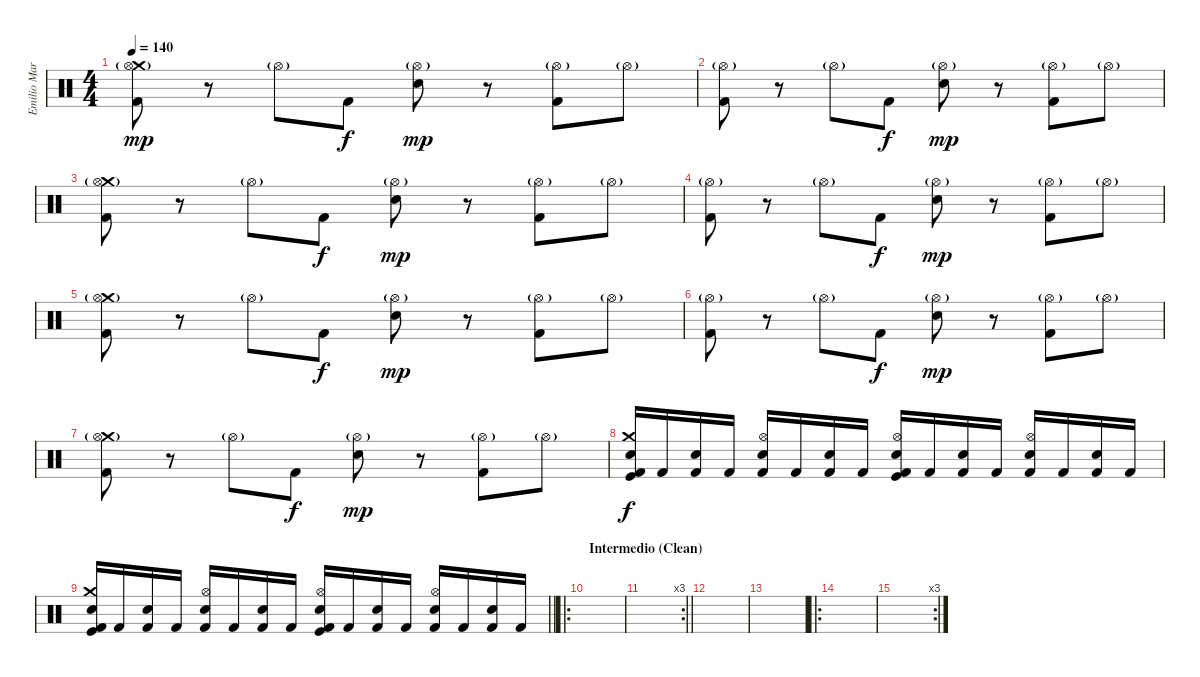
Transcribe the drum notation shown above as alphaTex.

\track ("Emilio Marquez \"El sadistico\"" "Emilio Mar") {instrument percussion}
\staff {score}
\articulation defaults
\ts (4 4)
\tempo 140
\clef neutral
\ks c
("Kick (hit) 2" "Crash medium (hit)" "Hi-Hat (open)"{g}).8{dy mp} r.8 "Hi-Hat (open)"{g}.8 "Kick (hit) 2".8{dy f} ("Electric Snare (hit)" "Hi-Hat (open)"{g}).8{dy mp} r.8 ("Kick (hit) 2" "Hi-Hat (open)"{g}).8 "Hi-Hat (open)"{g}.8 |
("Kick (hit) 2" "Hi-Hat (open)"{g}).8 r.8 "Hi-Hat (open)"{g}.8 "Kick (hit) 2".8{dy f} ("Electric Snare (hit)" "Hi-Hat (open)"{g}).8{dy mp} r.8 ("Kick (hit) 2" "Hi-Hat (open)"{g}).8 "Hi-Hat (open)"{g}.8 |
("Kick (hit) 2" "Crash medium (hit)" "Hi-Hat (open)"{g}).8 r.8 "Hi-Hat (open)"{g}.8 "Kick (hit) 2".8{dy f} ("Electric Snare (hit)" "Hi-Hat (open)"{g}).8{dy mp} r.8 ("Kick (hit) 2" "Hi-Hat (open)"{g}).8 "Hi-Hat (open)"{g}.8 |
("Kick (hit) 2" "Hi-Hat (open)"{g}).8 r.8 "Hi-Hat (open)"{g}.8 "Kick (hit) 2".8{dy f} ("Electric Snare (hit)" "Hi-Hat (open)"{g}).8{dy mp} r.8 ("Kick (hit) 2" "Hi-Hat (open)"{g}).8 "Hi-Hat (open)"{g}.8 |
("Kick (hit) 2" "Crash medium (hit)" "Hi-Hat (open)"{g}).8 r.8 "Hi-Hat (open)"{g}.8 "Kick (hit) 2".8{dy f} ("Electric Snare (hit)" "Hi-Hat (open)"{g}).8{dy mp} r.8 ("Kick (hit) 2" "Hi-Hat (open)"{g}).8 "Hi-Hat (open)"{g}.8 |
("Kick (hit) 2" "Hi-Hat (open)"{g}).8 r.8 "Hi-Hat (open)"{g}.8 "Kick (hit) 2".8{dy f} ("Electric Snare (hit)" "Hi-Hat (open)"{g}).8{dy mp} r.8 ("Kick (hit) 2" "Hi-Hat (open)"{g}).8 "Hi-Hat (open)"{g}.8 |
("Kick (hit) 2" "Crash medium (hit)" "Hi-Hat (open)"{g}).8 r.8 "Hi-Hat (open)"{g}.8 "Kick (hit) 2".8{dy f} ("Electric Snare (hit)" "Hi-Hat (open)"{g}).8{dy mp} r.8 ("Kick (hit) 2" "Hi-Hat (open)"{g}).8 "Hi-Hat (open)"{g}.8 |
("Crash medium (hit)" "Electric Snare (hit)" "Kick (hit)" "Kick (hit) 2").16{dy f} "Kick (hit) 2".16 ("Electric Snare (hit)" "Kick (hit) 2").16 "Kick (hit) 2".16 ("Hi-Hat (open)" "Electric Snare (hit)" "Kick (hit) 2").16 "Kick (hit) 2".16 ("Electric Snare (hit)" "Kick (hit) 2").16 "Kick (hit) 2".16 ("Hi-Hat (open)" "Electric Snare (hit)" "Kick (hit)" "Kick (hit) 2").16 "Kick (hit) 2".16 ("Electric Snare (hit)" "Kick (hit) 2").16 "Kick (hit) 2".16 ("Hi-Hat (open)" "Electric Snare (hit)" "Kick (hit) 2").16 "Kick (hit) 2".16 ("Electric Snare (hit)" "Kick (hit) 2").16 "Kick (hit) 2".16 |
\barLineRight lightlight
("Crash medium (hit)" "Electric Snare (hit)" "Kick (hit)" "Kick (hit) 2").16 "Kick (hit) 2".16 ("Electric Snare (hit)" "Kick (hit) 2").16 "Kick (hit) 2".16 ("Hi-Hat (open)" "Electric Snare (hit)" "Kick (hit) 2").16 "Kick (hit) 2".16 ("Electric Snare (hit)" "Kick (hit) 2").16 "Kick (hit) 2".16 ("Hi-Hat (open)" "Electric Snare (hit)" "Kick (hit)" "Kick (hit) 2").16 "Kick (hit) 2".16 ("Electric Snare (hit)" "Kick (hit) 2").16 "Kick (hit) 2".16 ("Hi-Hat (open)" "Electric Snare (hit)" "Kick (hit) 2").16 "Kick (hit) 2".16 ("Electric Snare (hit)" "Kick (hit) 2").16 "Kick (hit) 2".16 |
\ro
\section ("" "Intermedio (Clean)")
|
\rc 3
\barLineRight lightlight
|
|
|
\ro
|
\rc 3
